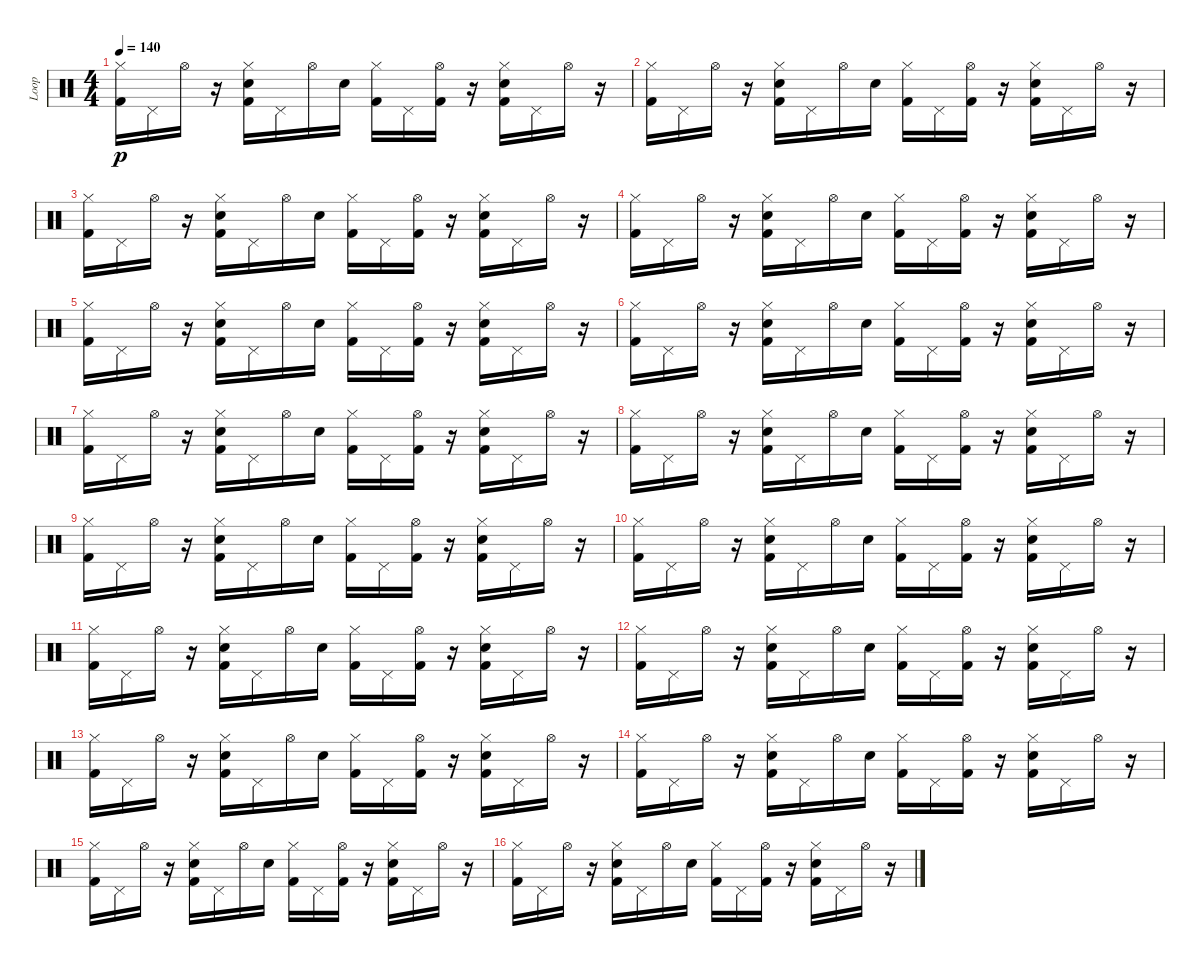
\track ("Loop" "Loop") {instrument percussion}
\staff {score}
\articulation defaults
\ts (4 4)
\tempo 140
\clef neutral
\ks c
("Hi-Hat (closed)" "Kick (hit) 2").16{dy p} "Pedal Hi-Hat (hit)".16 "Hi-Hat (open)".16 r.16 ("Hi-Hat (closed)" "Hand Clap (hit)" "Kick (hit) 2").16 "Pedal Hi-Hat (hit)".16 "Hi-Hat (open)".16 "Hand Clap (hit)".16 ("Hi-Hat (closed)" "Kick (hit) 2").16 "Pedal Hi-Hat (hit)".16 ("Hi-Hat (open)" "Kick (hit) 2").16 r.16 ("Hi-Hat (closed)" "Hand Clap (hit)" "Kick (hit) 2").16 "Pedal Hi-Hat (hit)".16 "Hi-Hat (open)".16 r.16 |
("Hi-Hat (closed)" "Kick (hit) 2").16 "Pedal Hi-Hat (hit)".16 "Hi-Hat (open)".16 r.16 ("Hi-Hat (closed)" "Hand Clap (hit)" "Kick (hit) 2").16 "Pedal Hi-Hat (hit)".16 "Hi-Hat (open)".16 "Hand Clap (hit)".16 ("Hi-Hat (closed)" "Kick (hit) 2").16 "Pedal Hi-Hat (hit)".16 ("Hi-Hat (open)" "Kick (hit) 2").16 r.16 ("Hi-Hat (closed)" "Hand Clap (hit)" "Kick (hit) 2").16 "Pedal Hi-Hat (hit)".16 "Hi-Hat (open)".16 r.16 |
("Hi-Hat (closed)" "Kick (hit) 2").16 "Pedal Hi-Hat (hit)".16 "Hi-Hat (open)".16 r.16 ("Hi-Hat (closed)" "Hand Clap (hit)" "Kick (hit) 2").16 "Pedal Hi-Hat (hit)".16 "Hi-Hat (open)".16 "Hand Clap (hit)".16 ("Hi-Hat (closed)" "Kick (hit) 2").16 "Pedal Hi-Hat (hit)".16 ("Hi-Hat (open)" "Kick (hit) 2").16 r.16 ("Hi-Hat (closed)" "Hand Clap (hit)" "Kick (hit) 2").16 "Pedal Hi-Hat (hit)".16 "Hi-Hat (open)".16 r.16 |
("Hi-Hat (closed)" "Kick (hit) 2").16 "Pedal Hi-Hat (hit)".16 "Hi-Hat (open)".16 r.16 ("Hi-Hat (closed)" "Hand Clap (hit)" "Kick (hit) 2").16 "Pedal Hi-Hat (hit)".16 "Hi-Hat (open)".16 "Hand Clap (hit)".16 ("Hi-Hat (closed)" "Kick (hit) 2").16 "Pedal Hi-Hat (hit)".16 ("Hi-Hat (open)" "Kick (hit) 2").16 r.16 ("Hi-Hat (closed)" "Hand Clap (hit)" "Kick (hit) 2").16 "Pedal Hi-Hat (hit)".16 "Hi-Hat (open)".16 r.16 |
("Hi-Hat (closed)" "Kick (hit) 2").16 "Pedal Hi-Hat (hit)".16 "Hi-Hat (open)".16 r.16 ("Hi-Hat (closed)" "Hand Clap (hit)" "Kick (hit) 2").16 "Pedal Hi-Hat (hit)".16 "Hi-Hat (open)".16 "Hand Clap (hit)".16 ("Hi-Hat (closed)" "Kick (hit) 2").16 "Pedal Hi-Hat (hit)".16 ("Hi-Hat (open)" "Kick (hit) 2").16 r.16 ("Hi-Hat (closed)" "Hand Clap (hit)" "Kick (hit) 2").16 "Pedal Hi-Hat (hit)".16 "Hi-Hat (open)".16 r.16 |
("Hi-Hat (closed)" "Kick (hit) 2").16 "Pedal Hi-Hat (hit)".16 "Hi-Hat (open)".16 r.16 ("Hi-Hat (closed)" "Hand Clap (hit)" "Kick (hit) 2").16 "Pedal Hi-Hat (hit)".16 "Hi-Hat (open)".16 "Hand Clap (hit)".16 ("Hi-Hat (closed)" "Kick (hit) 2").16 "Pedal Hi-Hat (hit)".16 ("Hi-Hat (open)" "Kick (hit) 2").16 r.16 ("Hi-Hat (closed)" "Hand Clap (hit)" "Kick (hit) 2").16 "Pedal Hi-Hat (hit)".16 "Hi-Hat (open)".16 r.16 |
("Hi-Hat (closed)" "Kick (hit) 2").16 "Pedal Hi-Hat (hit)".16 "Hi-Hat (open)".16 r.16 ("Hi-Hat (closed)" "Hand Clap (hit)" "Kick (hit) 2").16 "Pedal Hi-Hat (hit)".16 "Hi-Hat (open)".16 "Hand Clap (hit)".16 ("Hi-Hat (closed)" "Kick (hit) 2").16 "Pedal Hi-Hat (hit)".16 ("Hi-Hat (open)" "Kick (hit) 2").16 r.16 ("Hi-Hat (closed)" "Hand Clap (hit)" "Kick (hit) 2").16 "Pedal Hi-Hat (hit)".16 "Hi-Hat (open)".16 r.16 |
("Hi-Hat (closed)" "Kick (hit) 2").16 "Pedal Hi-Hat (hit)".16 "Hi-Hat (open)".16 r.16 ("Hi-Hat (closed)" "Hand Clap (hit)" "Kick (hit) 2").16 "Pedal Hi-Hat (hit)".16 "Hi-Hat (open)".16 "Hand Clap (hit)".16 ("Hi-Hat (closed)" "Kick (hit) 2").16 "Pedal Hi-Hat (hit)".16 ("Hi-Hat (open)" "Kick (hit) 2").16 r.16 ("Hi-Hat (closed)" "Hand Clap (hit)" "Kick (hit) 2").16 "Pedal Hi-Hat (hit)".16 "Hi-Hat (open)".16 r.16 |
("Hi-Hat (closed)" "Kick (hit) 2").16 "Pedal Hi-Hat (hit)".16 "Hi-Hat (open)".16 r.16 ("Hi-Hat (closed)" "Hand Clap (hit)" "Kick (hit) 2").16 "Pedal Hi-Hat (hit)".16 "Hi-Hat (open)".16 "Hand Clap (hit)".16 ("Hi-Hat (closed)" "Kick (hit) 2").16 "Pedal Hi-Hat (hit)".16 ("Hi-Hat (open)" "Kick (hit) 2").16 r.16 ("Hi-Hat (closed)" "Hand Clap (hit)" "Kick (hit) 2").16 "Pedal Hi-Hat (hit)".16 "Hi-Hat (open)".16 r.16 |
("Hi-Hat (closed)" "Kick (hit) 2").16 "Pedal Hi-Hat (hit)".16 "Hi-Hat (open)".16 r.16 ("Hi-Hat (closed)" "Hand Clap (hit)" "Kick (hit) 2").16 "Pedal Hi-Hat (hit)".16 "Hi-Hat (open)".16 "Hand Clap (hit)".16 ("Hi-Hat (closed)" "Kick (hit) 2").16 "Pedal Hi-Hat (hit)".16 ("Hi-Hat (open)" "Kick (hit) 2").16 r.16 ("Hi-Hat (closed)" "Hand Clap (hit)" "Kick (hit) 2").16 "Pedal Hi-Hat (hit)".16 "Hi-Hat (open)".16 r.16 |
("Hi-Hat (closed)" "Kick (hit) 2").16 "Pedal Hi-Hat (hit)".16 "Hi-Hat (open)".16 r.16 ("Hi-Hat (closed)" "Hand Clap (hit)" "Kick (hit) 2").16 "Pedal Hi-Hat (hit)".16 "Hi-Hat (open)".16 "Hand Clap (hit)".16 ("Hi-Hat (closed)" "Kick (hit) 2").16 "Pedal Hi-Hat (hit)".16 ("Hi-Hat (open)" "Kick (hit) 2").16 r.16 ("Hi-Hat (closed)" "Hand Clap (hit)" "Kick (hit) 2").16 "Pedal Hi-Hat (hit)".16 "Hi-Hat (open)".16 r.16 |
("Hi-Hat (closed)" "Kick (hit) 2").16 "Pedal Hi-Hat (hit)".16 "Hi-Hat (open)".16 r.16 ("Hi-Hat (closed)" "Hand Clap (hit)" "Kick (hit) 2").16 "Pedal Hi-Hat (hit)".16 "Hi-Hat (open)".16 "Hand Clap (hit)".16 ("Hi-Hat (closed)" "Kick (hit) 2").16 "Pedal Hi-Hat (hit)".16 ("Hi-Hat (open)" "Kick (hit) 2").16 r.16 ("Hi-Hat (closed)" "Hand Clap (hit)" "Kick (hit) 2").16 "Pedal Hi-Hat (hit)".16 "Hi-Hat (open)".16 r.16 |
("Hi-Hat (closed)" "Kick (hit) 2").16 "Pedal Hi-Hat (hit)".16 "Hi-Hat (open)".16 r.16 ("Hi-Hat (closed)" "Hand Clap (hit)" "Kick (hit) 2").16 "Pedal Hi-Hat (hit)".16 "Hi-Hat (open)".16 "Hand Clap (hit)".16 ("Hi-Hat (closed)" "Kick (hit) 2").16 "Pedal Hi-Hat (hit)".16 ("Hi-Hat (open)" "Kick (hit) 2").16 r.16 ("Hi-Hat (closed)" "Hand Clap (hit)" "Kick (hit) 2").16 "Pedal Hi-Hat (hit)".16 "Hi-Hat (open)".16 r.16 |
("Hi-Hat (closed)" "Kick (hit) 2").16 "Pedal Hi-Hat (hit)".16 "Hi-Hat (open)".16 r.16 ("Hi-Hat (closed)" "Hand Clap (hit)" "Kick (hit) 2").16 "Pedal Hi-Hat (hit)".16 "Hi-Hat (open)".16 "Hand Clap (hit)".16 ("Hi-Hat (closed)" "Kick (hit) 2").16 "Pedal Hi-Hat (hit)".16 ("Hi-Hat (open)" "Kick (hit) 2").16 r.16 ("Hi-Hat (closed)" "Hand Clap (hit)" "Kick (hit) 2").16 "Pedal Hi-Hat (hit)".16 "Hi-Hat (open)".16 r.16 |
("Hi-Hat (closed)" "Kick (hit) 2").16 "Pedal Hi-Hat (hit)".16 "Hi-Hat (open)".16 r.16 ("Hi-Hat (closed)" "Hand Clap (hit)" "Kick (hit) 2").16 "Pedal Hi-Hat (hit)".16 "Hi-Hat (open)".16 "Hand Clap (hit)".16 ("Hi-Hat (closed)" "Kick (hit) 2").16 "Pedal Hi-Hat (hit)".16 ("Hi-Hat (open)" "Kick (hit) 2").16 r.16 ("Hi-Hat (closed)" "Hand Clap (hit)" "Kick (hit) 2").16 "Pedal Hi-Hat (hit)".16 "Hi-Hat (open)".16 r.16 |
("Hi-Hat (closed)" "Kick (hit) 2").16 "Pedal Hi-Hat (hit)".16 "Hi-Hat (open)".16 r.16 ("Hi-Hat (closed)" "Hand Clap (hit)" "Kick (hit) 2").16 "Pedal Hi-Hat (hit)".16 "Hi-Hat (open)".16 "Hand Clap (hit)".16 ("Hi-Hat (closed)" "Kick (hit) 2").16 "Pedal Hi-Hat (hit)".16 ("Hi-Hat (open)" "Kick (hit) 2").16 r.16 ("Hi-Hat (closed)" "Hand Clap (hit)" "Kick (hit) 2").16 "Pedal Hi-Hat (hit)".16 "Hi-Hat (open)".16 r.16
